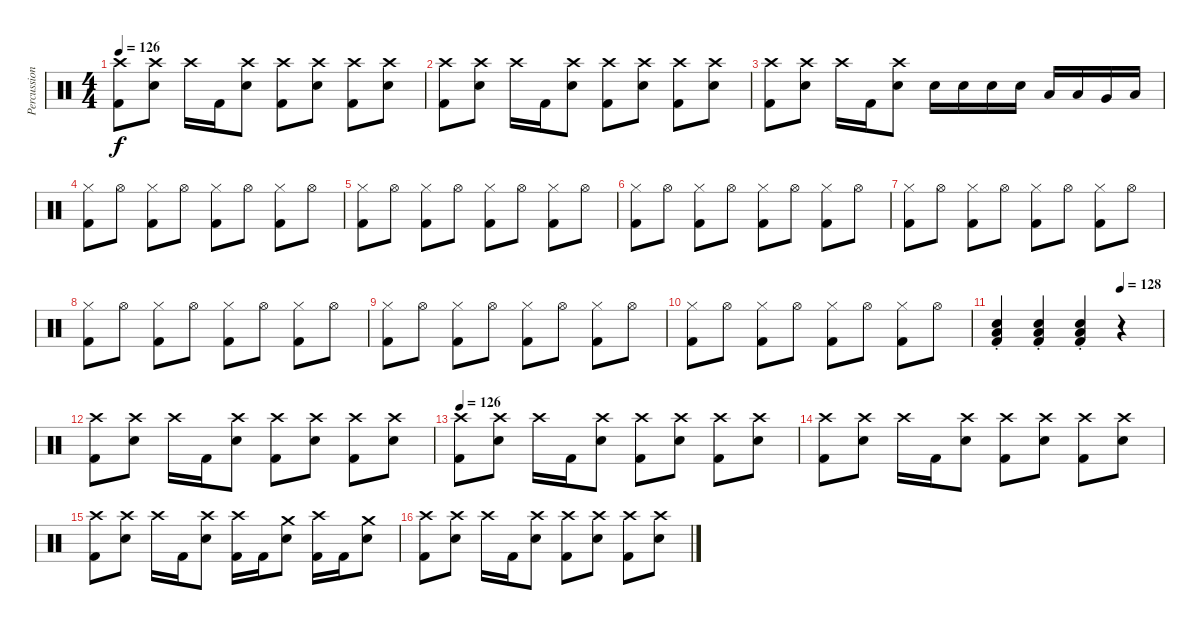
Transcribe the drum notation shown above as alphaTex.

\track ("Percussion" "Percussion") {instrument percussion}
\staff {score}
\articulation defaults
\ts (4 4)
\tempo 126
\clef neutral
\ks c
("Crash high (hit)" "Kick (hit) 2").8{dy f} ("Crash high (hit)" "Snare (hit) 2").8 "Crash high (hit)".16 "Kick (hit) 2".16 ("Crash high (hit)" "Snare (hit) 2").8 ("Crash high (hit)" "Kick (hit) 2").8 ("Crash high (hit)" "Snare (hit) 2").8 ("Crash high (hit)" "Kick (hit) 2").8 ("Crash high (hit)" "Snare (hit) 2").8 |
("Crash high (hit)" "Kick (hit) 2").8 ("Crash high (hit)" "Snare (hit) 2").8 "Crash high (hit)".16 "Kick (hit) 2".16 ("Crash high (hit)" "Snare (hit) 2").8 ("Crash high (hit)" "Kick (hit) 2").8 ("Crash high (hit)" "Snare (hit) 2").8 ("Crash high (hit)" "Kick (hit) 2").8 ("Crash high (hit)" "Snare (hit) 2").8 |
("Crash high (hit)" "Kick (hit) 2").8 ("Crash high (hit)" "Snare (hit) 2").8 "Crash high (hit)".16 "Kick (hit) 2".16 ("Crash high (hit)" "Snare (hit) 2").8 "Snare (hit) 2".16 "Snare (hit) 2".16 "Snare (hit) 2".16 "Snare (hit) 2".16 "Low Tom (hit)".16 "Low Tom (hit)".16 "Very Low Tom (hit)".16 "Low Floor Tom (hit)".16 |
("Hi-Hat (closed)" "Kick (hit) 2").8 "Hi-Hat (open)".8 ("Hi-Hat (closed)" "Kick (hit) 2").8 "Hi-Hat (open)".8 ("Hi-Hat (closed)" "Kick (hit) 2").8 "Hi-Hat (open)".8 ("Hi-Hat (closed)" "Kick (hit) 2").8 "Hi-Hat (open)".8 |
("Hi-Hat (closed)" "Kick (hit) 2").8 "Hi-Hat (open)".8 ("Hi-Hat (closed)" "Kick (hit) 2").8 "Hi-Hat (open)".8 ("Hi-Hat (closed)" "Kick (hit) 2").8 "Hi-Hat (open)".8 ("Hi-Hat (closed)" "Kick (hit) 2").8 "Hi-Hat (open)".8 |
("Hi-Hat (closed)" "Kick (hit) 2").8 "Hi-Hat (open)".8 ("Hi-Hat (closed)" "Kick (hit) 2").8 "Hi-Hat (open)".8 ("Hi-Hat (closed)" "Kick (hit) 2").8 "Hi-Hat (open)".8 ("Hi-Hat (closed)" "Kick (hit) 2").8 "Hi-Hat (open)".8 |
("Hi-Hat (closed)" "Kick (hit) 2").8 "Hi-Hat (open)".8 ("Hi-Hat (closed)" "Kick (hit) 2").8 "Hi-Hat (open)".8 ("Hi-Hat (closed)" "Kick (hit) 2").8 "Hi-Hat (open)".8 ("Hi-Hat (closed)" "Kick (hit) 2").8 "Hi-Hat (open)".8 |
("Hi-Hat (closed)" "Kick (hit) 2").8 "Hi-Hat (open)".8 ("Hi-Hat (closed)" "Kick (hit) 2").8 "Hi-Hat (open)".8 ("Hi-Hat (closed)" "Kick (hit) 2").8 "Hi-Hat (open)".8 ("Hi-Hat (closed)" "Kick (hit) 2").8 "Hi-Hat (open)".8 |
("Hi-Hat (closed)" "Kick (hit) 2").8 "Hi-Hat (open)".8 ("Hi-Hat (closed)" "Kick (hit) 2").8 "Hi-Hat (open)".8 ("Hi-Hat (closed)" "Kick (hit) 2").8 "Hi-Hat (open)".8 ("Hi-Hat (closed)" "Kick (hit) 2").8 "Hi-Hat (open)".8 |
("Hi-Hat (closed)" "Kick (hit) 2").8 "Hi-Hat (open)".8 ("Hi-Hat (closed)" "Kick (hit) 2").8 "Hi-Hat (open)".8 ("Hi-Hat (closed)" "Kick (hit) 2").8 "Hi-Hat (open)".8 ("Hi-Hat (closed)" "Kick (hit) 2").8 "Hi-Hat (open)".8 |
\tempo (128 0.75)
("Snare (hit) 2"{st} "Low Floor Tom (hit)"{st} "Kick (hit) 2"{st}).4 ("Snare (hit) 2"{st} "Low Floor Tom (hit)"{st} "Kick (hit) 2"{st}).4 ("Snare (hit) 2"{st} "Low Floor Tom (hit)"{st} "Kick (hit) 2"{st}).4 r.4 |
("Crash high (hit)" "Kick (hit) 2").8 ("Crash high (hit)" "Snare (hit) 2").8 "Crash high (hit)".16 "Kick (hit) 2".16 ("Crash high (hit)" "Snare (hit) 2").8 ("Crash high (hit)" "Kick (hit) 2").8 ("Crash high (hit)" "Snare (hit) 2").8 ("Crash high (hit)" "Kick (hit) 2").8 ("Crash high (hit)" "Snare (hit) 2").8 |
\tempo 126
("Crash high (hit)" "Kick (hit) 2").8 ("Crash high (hit)" "Snare (hit) 2").8 "Crash high (hit)".16 "Kick (hit) 2".16 ("Crash high (hit)" "Snare (hit) 2").8 ("Crash high (hit)" "Kick (hit) 2").8 ("Crash high (hit)" "Snare (hit) 2").8 ("Crash high (hit)" "Kick (hit) 2").8 ("Crash high (hit)" "Snare (hit) 2").8 |
("Crash high (hit)" "Kick (hit) 2").8 ("Crash high (hit)" "Snare (hit) 2").8 "Crash high (hit)".16 "Kick (hit) 2".16 ("Crash high (hit)" "Snare (hit) 2").8 ("Crash high (hit)" "Kick (hit) 2").8 ("Crash high (hit)" "Snare (hit) 2").8 ("Crash high (hit)" "Kick (hit) 2").8 ("Crash high (hit)" "Snare (hit) 2").8 |
("Crash high (hit)" "Kick (hit) 2").8 ("Crash high (hit)" "Snare (hit) 2").8 "Crash high (hit)".16 "Kick (hit) 2".16 ("Crash high (hit)" "Snare (hit) 2").8 ("Crash high (hit)" "Kick (hit) 2").16 "Kick (hit) 2".16 ("Crash medium (hit)" "Snare (hit) 2").8 ("Crash high (hit)" "Kick (hit) 2").16 "Kick (hit) 2".16 ("Crash medium (hit)" "Snare (hit) 2").8 |
("Crash high (hit)" "Kick (hit) 2").8 ("Crash high (hit)" "Snare (hit) 2").8 "Crash high (hit)".16 "Kick (hit) 2".16 ("Crash high (hit)" "Snare (hit) 2").8 ("Crash high (hit)" "Kick (hit) 2").8 ("Crash high (hit)" "Snare (hit) 2").8 ("Crash high (hit)" "Kick (hit) 2").8 ("Crash high (hit)" "Snare (hit) 2").8
